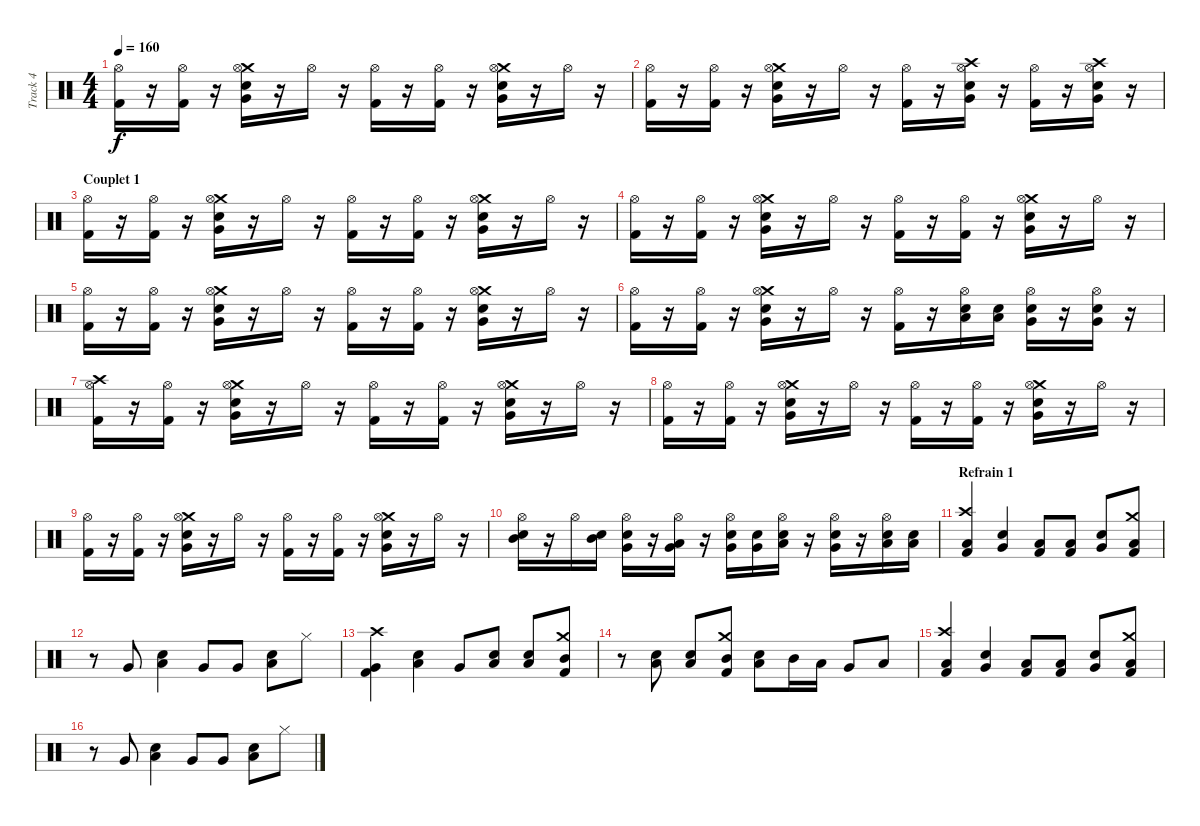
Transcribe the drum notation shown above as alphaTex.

\track ("Track 4" "Track 4") {instrument percussion}
\staff {score}
\articulation defaults
\ts (4 4)
\tempo 160
\clef neutral
\ks c
("Kick (hit) 2" "Hi-Hat (open)").16{dy f} r.16 ("Kick (hit) 2" "Hi-Hat (open)").16 r.16 ("Very Low Tom (hit)" "Electric Snare (hit)" "Crash medium (hit)" "Hi-Hat (open)").16 r.16 "Hi-Hat (open)".16 r.16 ("Kick (hit) 2" "Hi-Hat (open)").16 r.16 ("Kick (hit) 2" "Hi-Hat (open)").16 r.16 ("Very Low Tom (hit)" "Electric Snare (hit)" "Crash medium (hit)" "Hi-Hat (open)").16 r.16 "Hi-Hat (open)".16 r.16 |
("Kick (hit) 2" "Hi-Hat (open)").16 r.16 ("Kick (hit) 2" "Hi-Hat (open)").16 r.16 ("Very Low Tom (hit)" "Electric Snare (hit)" "Crash medium (hit)" "Hi-Hat (open)").16 r.16 "Hi-Hat (open)".16 r.16 ("Kick (hit) 2" "Hi-Hat (open)").16 r.16 ("Very Low Tom (hit)" "Hi-Hat (open)" "Snare (hit) 2" "Crash high (hit)").16 r.16 ("Kick (hit) 2" "Hi-Hat (open)").16 r.16 ("Very Low Tom (hit)" "Hi-Hat (open)" "Snare (hit) 2" "Crash high (hit)").16 r.16 |
\section ("" "Couplet 1")
("Kick (hit) 2" "Hi-Hat (open)").16 r.16 ("Kick (hit) 2" "Hi-Hat (open)").16 r.16 ("Very Low Tom (hit)" "Electric Snare (hit)" "Crash medium (hit)" "Hi-Hat (open)").16 r.16 "Hi-Hat (open)".16 r.16 ("Kick (hit) 2" "Hi-Hat (open)").16 r.16 ("Kick (hit) 2" "Hi-Hat (open)").16 r.16 ("Very Low Tom (hit)" "Electric Snare (hit)" "Crash medium (hit)" "Hi-Hat (open)").16 r.16 "Hi-Hat (open)".16 r.16 |
("Kick (hit) 2" "Hi-Hat (open)").16 r.16 ("Kick (hit) 2" "Hi-Hat (open)").16 r.16 ("Very Low Tom (hit)" "Electric Snare (hit)" "Crash medium (hit)" "Hi-Hat (open)").16 r.16 "Hi-Hat (open)".16 r.16 ("Kick (hit) 2" "Hi-Hat (open)").16 r.16 ("Kick (hit) 2" "Hi-Hat (open)").16 r.16 ("Very Low Tom (hit)" "Electric Snare (hit)" "Crash medium (hit)" "Hi-Hat (open)").16 r.16 "Hi-Hat (open)".16 r.16 |
("Kick (hit) 2" "Hi-Hat (open)").16 r.16 ("Kick (hit) 2" "Hi-Hat (open)").16 r.16 ("Very Low Tom (hit)" "Electric Snare (hit)" "Crash medium (hit)" "Hi-Hat (open)").16 r.16 "Hi-Hat (open)".16 r.16 ("Kick (hit) 2" "Hi-Hat (open)").16 r.16 ("Kick (hit) 2" "Hi-Hat (open)").16 r.16 ("Very Low Tom (hit)" "Electric Snare (hit)" "Crash medium (hit)" "Hi-Hat (open)").16 r.16 "Hi-Hat (open)".16 r.16 |
("Kick (hit) 2" "Hi-Hat (open)").16 r.16 ("Kick (hit) 2" "Hi-Hat (open)").16 r.16 ("Very Low Tom (hit)" "Electric Snare (hit)" "Crash medium (hit)" "Hi-Hat (open)").16 r.16 "Hi-Hat (open)".16 r.16 ("Kick (hit) 2" "Hi-Hat (open)").16 r.16 ("Electric Snare (hit)" "Hi-Hat (open)" "Low Tom (hit)").16 ("Low Tom (hit)" "Electric Snare (hit)").16 ("Very Low Tom (hit)" "Snare (hit) 2" "Hi-Hat (open)").16 r.16 ("Electric Snare (hit)" "Hi-Hat (open)" "Very Low Tom (hit)").16 r.16 |
("Kick (hit) 2" "Hi-Hat (open)" "Crash high (hit)").16 r.16 ("Kick (hit) 2" "Hi-Hat (open)").16 r.16 ("Very Low Tom (hit)" "Electric Snare (hit)" "Crash medium (hit)" "Hi-Hat (open)").16 r.16 "Hi-Hat (open)".16 r.16 ("Kick (hit) 2" "Hi-Hat (open)").16 r.16 ("Kick (hit) 2" "Hi-Hat (open)").16 r.16 ("Very Low Tom (hit)" "Electric Snare (hit)" "Crash medium (hit)" "Hi-Hat (open)").16 r.16 "Hi-Hat (open)".16 r.16 |
("Kick (hit) 2" "Hi-Hat (open)").16 r.16 ("Kick (hit) 2" "Hi-Hat (open)").16 r.16 ("Very Low Tom (hit)" "Electric Snare (hit)" "Crash medium (hit)" "Hi-Hat (open)").16 r.16 "Hi-Hat (open)".16 r.16 ("Kick (hit) 2" "Hi-Hat (open)").16 r.16 ("Kick (hit) 2" "Hi-Hat (open)").16 r.16 ("Very Low Tom (hit)" "Electric Snare (hit)" "Crash medium (hit)" "Hi-Hat (open)").16 r.16 "Hi-Hat (open)".16 r.16 |
("Kick (hit) 2" "Hi-Hat (open)").16 r.16 ("Kick (hit) 2" "Hi-Hat (open)").16 r.16 ("Very Low Tom (hit)" "Electric Snare (hit)" "Crash medium (hit)" "Hi-Hat (open)").16 r.16 "Hi-Hat (open)".16 r.16 ("Kick (hit) 2" "Hi-Hat (open)").16 r.16 ("Kick (hit) 2" "Hi-Hat (open)").16 r.16 ("Very Low Tom (hit)" "Electric Snare (hit)" "Crash medium (hit)" "Hi-Hat (open)").16 r.16 "Hi-Hat (open)".16 r.16 |
("Electric Snare (hit)" "Hi-Hat (open)" "Mid Tom (hit)").16 r.16 "Hi-Hat (open)".16 ("Electric Snare (hit)" "Mid Tom (hit)").16 ("Very Low Tom (hit)" "Electric Snare (hit)" "Hi-Hat (open)").16 r.16 ("Very Low Tom (hit)" "Hi-Hat (open)" "Low Floor Tom (hit)").16 r.16 ("Very Low Tom (hit)" "Hi-Hat (open)" "Electric Snare (hit)").16 ("Electric Snare (hit)" "Very Low Tom (hit)").16 ("Low Floor Tom (hit)" "Hi-Hat (open)" "Electric Snare (hit)").16 r.16 ("Very Low Tom (hit)" "Electric Snare (hit)" "Hi-Hat (open)").16 r.16 ("Low Floor Tom (hit)" "Hi-Hat (open)" "Electric Snare (hit)").16 ("Low Floor Tom (hit)" "Electric Snare (hit)").16 |
\section ("" "Refrain 1")
("Low Tom (hit)" "Crash high (hit)" "Kick (hit) 2").4 ("Electric Snare (hit)" "Very Low Tom (hit)").4 ("Low Tom (hit)" "Kick (hit) 2").8 ("Low Tom (hit)" "Kick (hit) 2").8 ("Electric Snare (hit)" "Very Low Tom (hit)").8 ("Low Tom (hit)" "Kick (hit) 2" "Crash medium (hit)").8 |
r.8 "Very Low Tom (hit)".8 ("Low Tom (hit)" "Electric Snare (hit)").4 "Very Low Tom (hit)".8 "Very Low Tom (hit)".8 ("Low Tom (hit)" "Electric Snare (hit)").8 "Hi-Hat (closed)".8 |
("Very Low Tom (hit)" "Crash high (hit)" "Kick (hit) 2").4 ("Low Tom (hit)" "Electric Snare (hit)").4 "Very Low Tom (hit)".8 ("Low Tom (hit)" "Electric Snare (hit)").8 ("Low Tom (hit)" "Electric Snare (hit)").8 ("Mid Tom (hit)" "Kick (hit) 2" "Crash medium (hit)").8 |
r.8 ("Low Tom (hit)" "Electric Snare (hit)").8 ("Low Tom (hit)" "Electric Snare (hit)").8 ("Mid Tom (hit)" "Kick (hit) 2" "Crash medium (hit)").8 ("Low Tom (hit)" "Electric Snare (hit)").8 "Mid Tom (hit)".16 "Low Tom (hit)".16 "Very Low Tom (hit)".8 "Low Floor Tom (hit)".8 |
("Low Tom (hit)" "Crash high (hit)" "Kick (hit) 2").4 ("Electric Snare (hit)" "Very Low Tom (hit)").4 ("Low Tom (hit)" "Kick (hit) 2").8 ("Low Tom (hit)" "Kick (hit) 2").8 ("Electric Snare (hit)" "Very Low Tom (hit)").8 ("Low Tom (hit)" "Kick (hit) 2" "Crash medium (hit)").8 |
r.8 "Very Low Tom (hit)".8 ("Low Tom (hit)" "Electric Snare (hit)").4 "Very Low Tom (hit)".8 "Very Low Tom (hit)".8 ("Low Tom (hit)" "Electric Snare (hit)").8 "Hi-Hat (closed)".8
